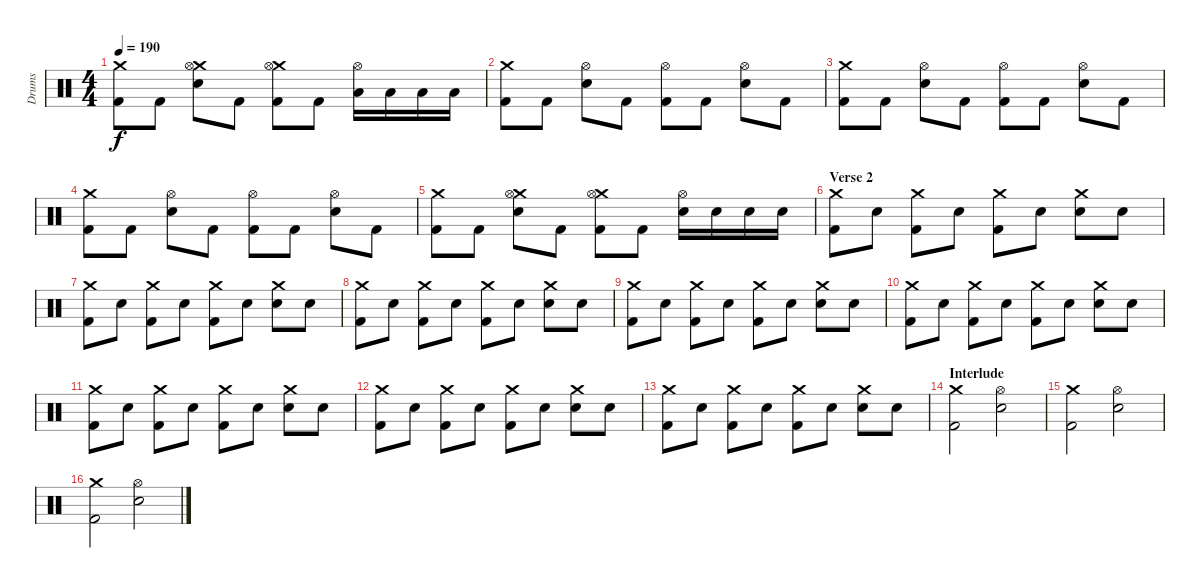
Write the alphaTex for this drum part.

\track ("Drums" "Drums") {instrument percussion}
\staff {score}
\articulation defaults
\ts (4 4)
\tempo 190
\clef neutral
\ks c
("Crash medium (hit)" "Kick (hit) 2").8{dy f} "Kick (hit) 2".8 ("Crash medium (hit)" "Hi-Hat (open)" "Snare (hit) 2").8 "Kick (hit) 2".8 ("Crash medium (hit)" "Hi-Hat (open)" "Kick (hit) 2").8 "Kick (hit) 2".8 ("Hi-Hat (open)" "Low Floor Tom (hit)").16 "Low Floor Tom (hit)".16 "Low Floor Tom (hit)".16 "Low Floor Tom (hit)".16 |
("Crash medium (hit)" "Kick (hit) 2").8 "Kick (hit) 2".8 ("Hi-Hat (open)" "Snare (hit) 2").8 "Kick (hit) 2".8 ("Hi-Hat (open)" "Kick (hit) 2").8 "Kick (hit) 2".8 ("Hi-Hat (open)" "Snare (hit) 2").8 "Kick (hit) 2".8 |
("Crash medium (hit)" "Kick (hit) 2").8 "Kick (hit) 2".8 ("Hi-Hat (open)" "Snare (hit) 2").8 "Kick (hit) 2".8 ("Hi-Hat (open)" "Kick (hit) 2").8 "Kick (hit) 2".8 ("Hi-Hat (open)" "Snare (hit) 2").8 "Kick (hit) 2".8 |
("Crash medium (hit)" "Kick (hit) 2").8 "Kick (hit) 2".8 ("Hi-Hat (open)" "Snare (hit) 2").8 "Kick (hit) 2".8 ("Hi-Hat (open)" "Kick (hit) 2").8 "Kick (hit) 2".8 ("Hi-Hat (open)" "Snare (hit) 2").8 "Kick (hit) 2".8 |
("Crash medium (hit)" "Kick (hit) 2").8 "Kick (hit) 2".8 ("Crash medium (hit)" "Hi-Hat (open)" "Snare (hit) 2").8 "Kick (hit) 2".8 ("Crash medium (hit)" "Hi-Hat (open)" "Kick (hit) 2").8 "Kick (hit) 2".8 ("Hi-Hat (open)" "Snare (hit) 2").16 "Snare (hit) 2".16 "Snare (hit) 2".16 "Snare (hit) 2".16 |
\section ("" "Verse 2")
("Crash medium (hit)" "Kick (hit) 2").8 "Snare (hit) 2".8 ("Crash medium (hit)" "Kick (hit) 2").8 "Snare (hit) 2".8 ("Crash medium (hit)" "Kick (hit) 2").8 "Snare (hit) 2".8 ("Crash medium (hit)" "Snare (hit) 2").8 "Snare (hit) 2".8 |
("Crash medium (hit)" "Kick (hit) 2").8 "Snare (hit) 2".8 ("Crash medium (hit)" "Kick (hit) 2").8 "Snare (hit) 2".8 ("Crash medium (hit)" "Kick (hit) 2").8 "Snare (hit) 2".8 ("Crash medium (hit)" "Snare (hit) 2").8 "Snare (hit) 2".8 |
("Crash medium (hit)" "Kick (hit) 2").8 "Snare (hit) 2".8 ("Crash medium (hit)" "Kick (hit) 2").8 "Snare (hit) 2".8 ("Crash medium (hit)" "Kick (hit) 2").8 "Snare (hit) 2".8 ("Crash medium (hit)" "Snare (hit) 2").8 "Snare (hit) 2".8 |
("Crash medium (hit)" "Kick (hit) 2").8 "Snare (hit) 2".8 ("Crash medium (hit)" "Kick (hit) 2").8 "Snare (hit) 2".8 ("Crash medium (hit)" "Kick (hit) 2").8 "Snare (hit) 2".8 ("Crash medium (hit)" "Snare (hit) 2").8 "Snare (hit) 2".8 |
("Crash medium (hit)" "Kick (hit) 2").8 "Snare (hit) 2".8 ("Crash medium (hit)" "Kick (hit) 2").8 "Snare (hit) 2".8 ("Crash medium (hit)" "Kick (hit) 2").8 "Snare (hit) 2".8 ("Crash medium (hit)" "Snare (hit) 2").8 "Snare (hit) 2".8 |
("Crash medium (hit)" "Kick (hit) 2").8 "Snare (hit) 2".8 ("Crash medium (hit)" "Kick (hit) 2").8 "Snare (hit) 2".8 ("Crash medium (hit)" "Kick (hit) 2").8 "Snare (hit) 2".8 ("Crash medium (hit)" "Snare (hit) 2").8 "Snare (hit) 2".8 |
("Crash medium (hit)" "Kick (hit) 2").8 "Snare (hit) 2".8 ("Crash medium (hit)" "Kick (hit) 2").8 "Snare (hit) 2".8 ("Crash medium (hit)" "Kick (hit) 2").8 "Snare (hit) 2".8 ("Crash medium (hit)" "Snare (hit) 2").8 "Snare (hit) 2".8 |
("Crash medium (hit)" "Kick (hit) 2").8 "Snare (hit) 2".8 ("Crash medium (hit)" "Kick (hit) 2").8 "Snare (hit) 2".8 ("Crash medium (hit)" "Kick (hit) 2").8 "Snare (hit) 2".8 ("Crash medium (hit)" "Snare (hit) 2").8 "Snare (hit) 2".8 |
\section ("" "Interlude")
("Crash medium (hit)" "Kick (hit) 2").2 ("Hi-Hat (open)" "Snare (hit) 2").2 |
("Crash medium (hit)" "Kick (hit) 2").2 ("Hi-Hat (open)" "Snare (hit) 2").2 |
("Crash medium (hit)" "Kick (hit) 2").2 ("Hi-Hat (open)" "Snare (hit) 2").2
